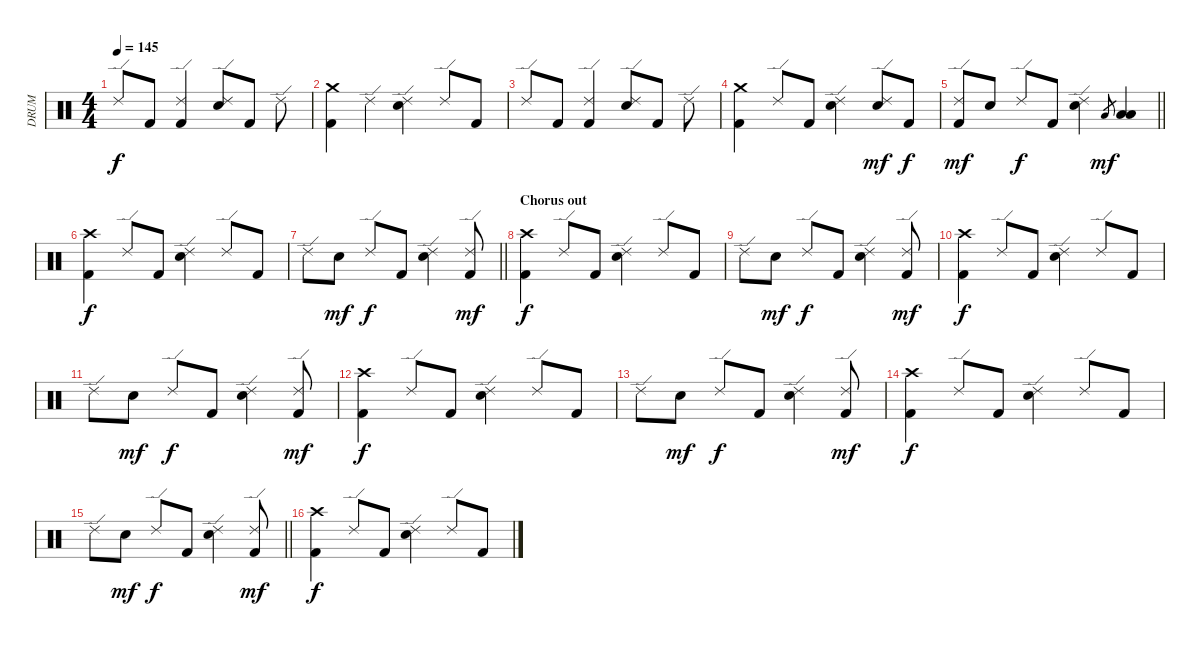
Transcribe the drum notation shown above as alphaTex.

\track ("DRUM" "DRUM") {instrument percussion}
\staff {score}
\articulation defaults
\ts (4 4)
\tempo 145
\clef neutral
\ks c "Ride (edge) 2".8{dy f} "Kick (hit) 2".8
("Ride (edge) 2" "Kick (hit) 2").4 ("Ride (edge) 2" "Electric Snare (hit)").8 "Kick (hit) 2".8 "Ride (edge) 2".8 |
("Crash medium (hit)" "Kick (hit) 2").4 "Ride (edge) 2".4 ("Ride (edge) 2" "Electric Snare (hit)").4 "Ride (edge) 2".8 "Kick (hit) 2".8 |
"Ride (edge) 2".8 "Kick (hit) 2".8 ("Ride (edge) 2" "Kick (hit) 2").4 ("Ride (edge) 2" "Electric Snare (hit)").8 "Kick (hit) 2".8 "Ride (edge) 2".8 |
("Crash medium (hit)" "Kick (hit) 2").4 "Ride (edge) 2".8 "Kick (hit) 2".8 ("Ride (edge) 2" "Electric Snare (hit)").4 ("Ride (edge) 2" "Electric Snare (hit)").8{dy mf} "Kick (hit) 2".8{dy f} |
\barLineRight lightlight
("Ride (edge) 2" "Kick (hit) 2").8{dy mf} "Electric Snare (hit)".8 "Ride (edge) 2".8{dy f} "Kick (hit) 2".8 ("Ride (edge) 2" "Electric Snare (hit)").4 "Low Tom (hit)".8{gr dy mf} ("Low Tom (hit)" "Low Tom (hit)").4 |
("Crash high (hit)" "Kick (hit) 2").4{dy f} "Ride (edge) 2".8 "Kick (hit) 2".8 ("Ride (edge) 2" "Electric Snare (hit)").4 "Ride (edge) 2".8 "Kick (hit) 2".8 |
\barLineRight lightlight "Ride (edge) 2".8 "Electric Snare (hit)".8{dy mf} "Ride (edge) 2".8{dy f} "Kick (hit) 2".8
("Ride (edge) 2" "Electric Snare (hit)").4 ("Ride (edge) 2" "Kick (hit) 2").8{dy mf} |
\section ("" "Chorus out")
("Crash high (hit)" "Kick (hit) 2").4{dy f} "Ride (edge) 2".8 "Kick (hit) 2".8 ("Ride (edge) 2" "Electric Snare (hit)").4 "Ride (edge) 2".8 "Kick (hit) 2".8 |
"Ride (edge) 2".8 "Electric Snare (hit)".8{dy mf} "Ride (edge) 2".8{dy f} "Kick (hit) 2".8 ("Ride (edge) 2" "Electric Snare (hit)").4 ("Ride (edge) 2" "Kick (hit) 2").8{dy mf} |
("Crash high (hit)" "Kick (hit) 2").4{dy f} "Ride (edge) 2".8 "Kick (hit) 2".8 ("Ride (edge) 2" "Electric Snare (hit)").4 "Ride (edge) 2".8 "Kick (hit) 2".8 |
"Ride (edge) 2".8 "Electric Snare (hit)".8{dy mf} "Ride (edge) 2".8{dy f} "Kick (hit) 2".8 ("Ride (edge) 2" "Electric Snare (hit)").4 ("Ride (edge) 2" "Kick (hit) 2").8{dy mf} |
("Crash high (hit)" "Kick (hit) 2").4{dy f} "Ride (edge) 2".8 "Kick (hit) 2".8 ("Ride (edge) 2" "Electric Snare (hit)").4 "Ride (edge) 2".8 "Kick (hit) 2".8 |
"Ride (edge) 2".8 "Electric Snare (hit)".8{dy mf} "Ride (edge) 2".8{dy f} "Kick (hit) 2".8 ("Ride (edge) 2" "Electric Snare (hit)").4 ("Ride (edge) 2" "Kick (hit) 2").8{dy mf} |
("Crash high (hit)" "Kick (hit) 2").4{dy f} "Ride (edge) 2".8 "Kick (hit) 2".8 ("Ride (edge) 2" "Electric Snare (hit)").4 "Ride (edge) 2".8 "Kick (hit) 2".8 |
\barLineRight lightlight "Ride (edge) 2".8 "Electric Snare (hit)".8{dy mf} "Ride (edge) 2".8{dy f} "Kick (hit) 2".8
("Ride (edge) 2" "Electric Snare (hit)").4 ("Ride (edge) 2" "Kick (hit) 2").8{dy mf} |
("Crash high (hit)" "Kick (hit) 2").4{dy f} "Ride (edge) 2".8 "Kick (hit) 2".8 ("Ride (edge) 2" "Electric Snare (hit)").4 "Ride (edge) 2".8 "Kick (hit) 2".8
